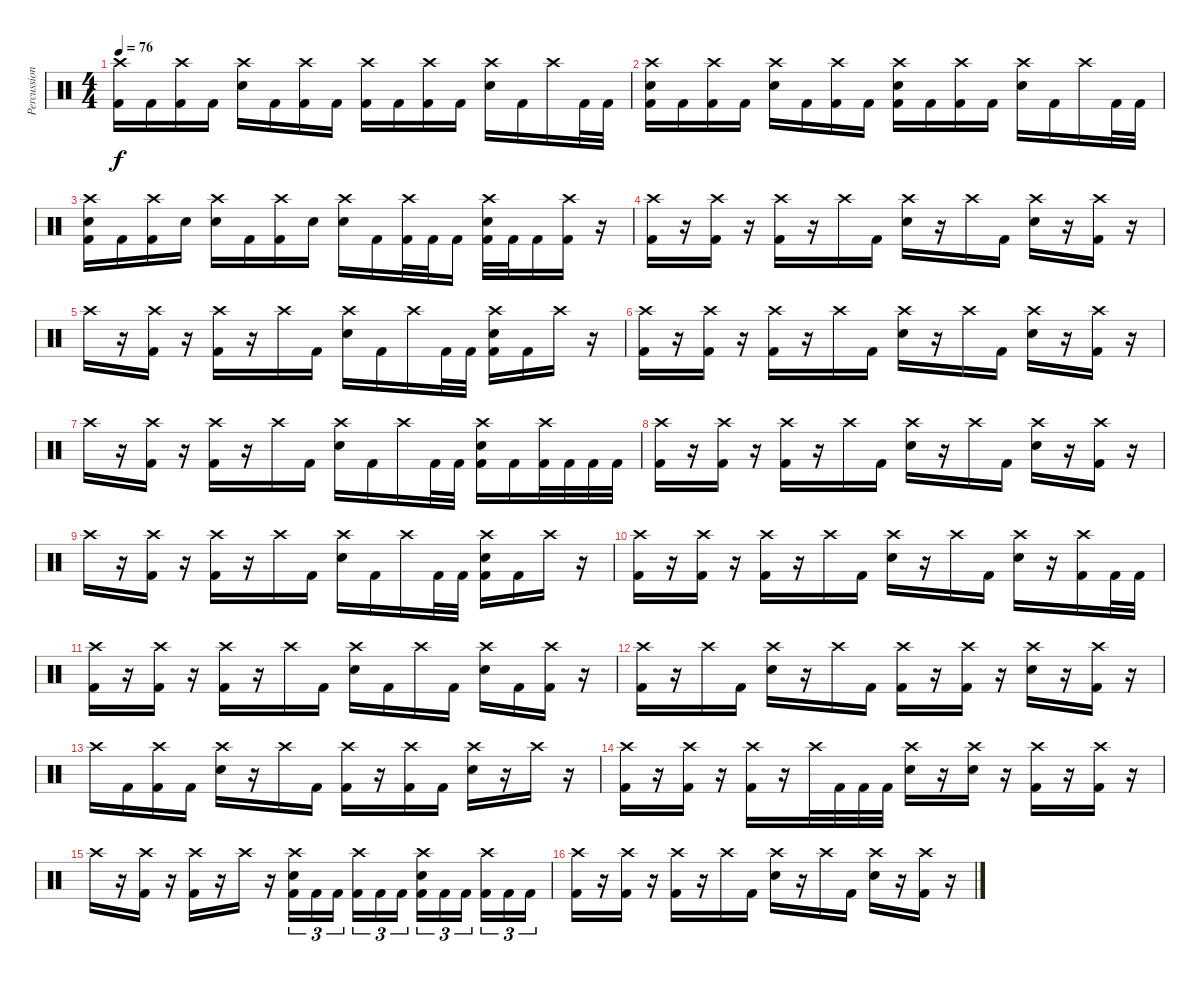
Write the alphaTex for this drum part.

\track ("Percussion" "Percussion") {instrument percussion}
\staff {score}
\articulation defaults
\ts (4 4)
\tempo 76
\clef neutral
\ks c
("Crash high (hit)" "Kick (hit) 2").16{dy f} "Kick (hit) 2".16 ("Crash high (hit)" "Kick (hit) 2").16 "Kick (hit) 2".16 ("Crash high (hit)" "Electric Snare (hit)").16 "Kick (hit) 2".16 ("Crash high (hit)" "Kick (hit) 2").16 "Kick (hit) 2".16 ("Crash high (hit)" "Kick (hit) 2").16 "Kick (hit) 2".16 ("Crash high (hit)" "Kick (hit) 2").16 "Kick (hit) 2".16 ("Crash high (hit)" "Electric Snare (hit)").16 "Kick (hit) 2".16 "Crash high (hit)".16 "Kick (hit) 2".32 "Kick (hit) 2".32 |
("Crash high (hit)" "Electric Snare (hit)" "Kick (hit) 2").16 "Kick (hit) 2".16 ("Crash high (hit)" "Kick (hit) 2").16 "Kick (hit) 2".16 ("Crash high (hit)" "Electric Snare (hit)").16 "Kick (hit) 2".16 ("Crash high (hit)" "Kick (hit) 2").16 "Kick (hit) 2".16 ("Crash high (hit)" "Electric Snare (hit)" "Kick (hit) 2").16 "Kick (hit) 2".16 ("Crash high (hit)" "Kick (hit) 2").16 "Kick (hit) 2".16 ("Crash high (hit)" "Electric Snare (hit)").16 "Kick (hit) 2".16 "Crash high (hit)".16 "Kick (hit) 2".32 "Kick (hit) 2".32 |
("Crash high (hit)" "Electric Snare (hit)" "Kick (hit) 2").16 "Kick (hit) 2".16 ("Crash high (hit)" "Kick (hit) 2").16 "Electric Snare (hit)".16 ("Crash high (hit)" "Electric Snare (hit)").16 "Kick (hit) 2".16 ("Crash high (hit)" "Kick (hit) 2").16 "Electric Snare (hit)".16 ("Crash high (hit)" "Electric Snare (hit)").16 "Kick (hit) 2".16 ("Crash high (hit)" "Kick (hit) 2").32 "Kick (hit) 2".32 "Kick (hit) 2".16 ("Crash high (hit)" "Electric Snare (hit)" "Kick (hit) 2").32 "Kick (hit) 2".32 "Kick (hit) 2".16 ("Crash high (hit)" "Kick (hit) 2").16 r.16 |
("Crash high (hit)" "Kick (hit) 2").16 r.16 ("Crash high (hit)" "Kick (hit) 2").16 r.16 ("Crash high (hit)" "Kick (hit) 2").16 r.16 "Crash high (hit)".16 "Kick (hit) 2".16 ("Crash high (hit)" "Electric Snare (hit)").16 r.16 "Crash high (hit)".16 "Kick (hit) 2".16 ("Crash high (hit)" "Electric Snare (hit)").16 r.16 ("Crash high (hit)" "Kick (hit) 2").16 r.16 |
"Crash high (hit)".16 r.16 ("Crash high (hit)" "Kick (hit) 2").16 r.16 ("Crash high (hit)" "Kick (hit) 2").16 r.16 "Crash high (hit)".16 "Kick (hit) 2".16 ("Crash high (hit)" "Electric Snare (hit)").16 "Kick (hit) 2".16 "Crash high (hit)".16 "Kick (hit) 2".32 "Kick (hit) 2".32 ("Crash high (hit)" "Electric Snare (hit)" "Kick (hit) 2").16 "Kick (hit) 2".16 "Crash high (hit)".16 r.16 |
("Crash high (hit)" "Kick (hit) 2").16 r.16 ("Crash high (hit)" "Kick (hit) 2").16 r.16 ("Crash high (hit)" "Kick (hit) 2").16 r.16 "Crash high (hit)".16 "Kick (hit) 2".16 ("Crash high (hit)" "Electric Snare (hit)").16 r.16 "Crash high (hit)".16 "Kick (hit) 2".16 ("Crash high (hit)" "Electric Snare (hit)").16 r.16 ("Crash high (hit)" "Kick (hit) 2").16 r.16 |
"Crash high (hit)".16 r.16 ("Crash high (hit)" "Kick (hit) 2").16 r.16 ("Crash high (hit)" "Kick (hit) 2").16 r.16 "Crash high (hit)".16 "Kick (hit) 2".16 ("Crash high (hit)" "Electric Snare (hit)").16 "Kick (hit) 2".16 "Crash high (hit)".16 "Kick (hit) 2".32 "Kick (hit) 2".32 ("Crash high (hit)" "Electric Snare (hit)" "Kick (hit) 2").16 "Kick (hit) 2".16 ("Crash high (hit)" "Kick (hit) 2").32 "Kick (hit) 2".32 "Kick (hit) 2".32 "Kick (hit) 2".32 |
("Crash high (hit)" "Kick (hit) 2").16 r.16 ("Crash high (hit)" "Kick (hit) 2").16 r.16 ("Crash high (hit)" "Kick (hit) 2").16 r.16 "Crash high (hit)".16 "Kick (hit) 2".16 ("Crash high (hit)" "Electric Snare (hit)").16 r.16 "Crash high (hit)".16 "Kick (hit) 2".16 ("Crash high (hit)" "Electric Snare (hit)").16 r.16 ("Crash high (hit)" "Kick (hit) 2").16 r.16 |
"Crash high (hit)".16 r.16 ("Crash high (hit)" "Kick (hit) 2").16 r.16 ("Crash high (hit)" "Kick (hit) 2").16 r.16 "Crash high (hit)".16 "Kick (hit) 2".16 ("Crash high (hit)" "Electric Snare (hit)").16 "Kick (hit) 2".16 "Crash high (hit)".16 "Kick (hit) 2".32 "Kick (hit) 2".32 ("Crash high (hit)" "Electric Snare (hit)" "Kick (hit) 2").16 "Kick (hit) 2".16 "Crash high (hit)".16 r.16 |
("Crash high (hit)" "Kick (hit) 2").16 r.16 ("Crash high (hit)" "Kick (hit) 2").16 r.16 ("Crash high (hit)" "Kick (hit) 2").16 r.16 "Crash high (hit)".16 "Kick (hit) 2".16 ("Crash high (hit)" "Electric Snare (hit)").16 r.16 "Crash high (hit)".16 "Kick (hit) 2".16 ("Crash high (hit)" "Electric Snare (hit)").16 r.16 ("Crash high (hit)" "Kick (hit) 2").16 "Kick (hit) 2".32 "Kick (hit) 2".32 |
("Crash high (hit)" "Kick (hit) 2").16 r.16 ("Crash high (hit)" "Kick (hit) 2").16 r.16 ("Crash high (hit)" "Kick (hit) 2").16 r.16 "Crash high (hit)".16 "Kick (hit) 2".16 ("Crash high (hit)" "Electric Snare (hit)").16 "Kick (hit) 2".16 "Crash high (hit)".16 "Kick (hit) 2".16 ("Crash high (hit)" "Electric Snare (hit)").16 "Kick (hit) 2".16 ("Crash high (hit)" "Kick (hit) 2").16 r.16 |
("Crash high (hit)" "Kick (hit) 2").16 r.16 "Crash high (hit)".16 "Kick (hit) 2".16 ("Crash high (hit)" "Electric Snare (hit)").16 r.16 "Crash high (hit)".16 "Kick (hit) 2".16 ("Crash high (hit)" "Kick (hit) 2").16 r.16 ("Crash high (hit)" "Kick (hit) 2").16 r.16 ("Crash high (hit)" "Electric Snare (hit)").16 r.16 ("Crash high (hit)" "Kick (hit) 2").16 r.16 |
"Crash high (hit)".16 "Kick (hit) 2".16 ("Crash high (hit)" "Kick (hit) 2").16 "Kick (hit) 2".16 ("Crash high (hit)" "Electric Snare (hit)").16 r.16 "Crash high (hit)".16 "Kick (hit) 2".16 ("Crash high (hit)" "Kick (hit) 2").16 r.16 ("Crash high (hit)" "Kick (hit) 2").16 "Kick (hit) 2".16 ("Crash high (hit)" "Electric Snare (hit)").16 r.16 "Crash high (hit)".16 r.16 |
("Crash high (hit)" "Kick (hit) 2").16 r.16 ("Crash high (hit)" "Kick (hit) 2").16 r.16 ("Crash high (hit)" "Kick (hit) 2").16 r.16 "Crash high (hit)".32 "Kick (hit) 2".32 "Kick (hit) 2".32 "Kick (hit) 2".32 ("Crash high (hit)" "Electric Snare (hit)").16 r.16 ("Crash high (hit)" "Electric Snare (hit)").16 r.16 ("Crash high (hit)" "Kick (hit) 2").16 r.16 ("Crash high (hit)" "Kick (hit) 2").16 r.16 |
"Crash high (hit)".16 r.16 ("Crash high (hit)" "Kick (hit) 2").16 r.16 ("Crash high (hit)" "Kick (hit) 2").16 r.16 "Crash high (hit)".16 r.16 ("Crash high (hit)" "Electric Snare (hit)" "Kick (hit) 2").16{tu (3 2)} "Kick (hit) 2".16{tu (3 2)} "Kick (hit) 2".16{tu (3 2) beam splitsecondary} ("Crash high (hit)" "Kick (hit) 2").16{tu (3 2)} "Kick (hit) 2".16{tu (3 2)} "Kick (hit) 2".16{tu (3 2)} ("Crash high (hit)" "Electric Snare (hit)" "Kick (hit) 2").16{tu (3 2)} "Kick (hit) 2".16{tu (3 2)} "Kick (hit) 2".16{tu (3 2) beam splitsecondary} ("Crash high (hit)" "Kick (hit) 2").16{tu (3 2)} "Kick (hit) 2".16{tu (3 2)} "Kick (hit) 2".16{tu (3 2)} |
("Crash high (hit)" "Kick (hit) 2").16 r.16 ("Crash high (hit)" "Kick (hit) 2").16 r.16 ("Crash high (hit)" "Kick (hit) 2").16 r.16 "Crash high (hit)".16 "Kick (hit) 2".16 ("Crash high (hit)" "Electric Snare (hit)").16 r.16 "Crash high (hit)".16 "Kick (hit) 2".16 ("Crash high (hit)" "Electric Snare (hit)").16 r.16 ("Crash high (hit)" "Kick (hit) 2").16 r.16
